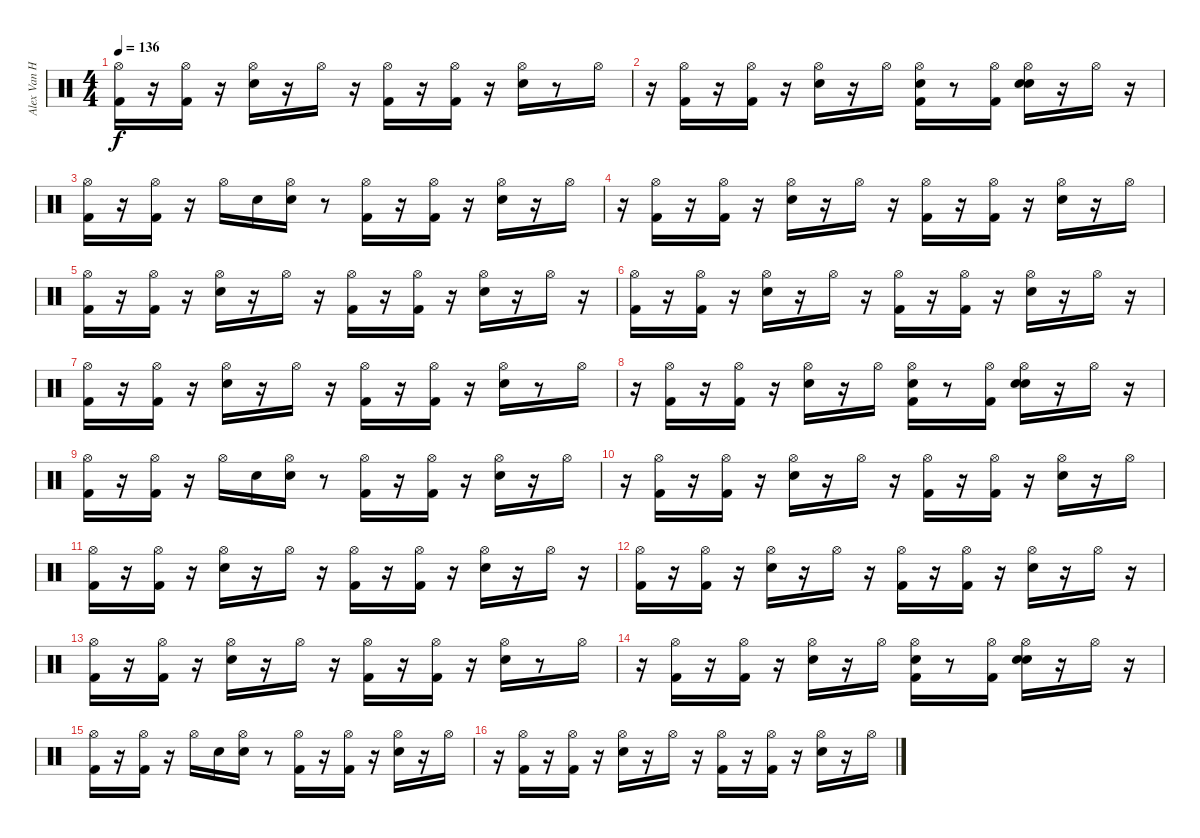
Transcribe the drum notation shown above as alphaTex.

\track ("Alex Van Halen (Drums)" "Alex Van H") {instrument percussion}
\staff {score}
\articulation defaults
\ts (4 4)
\tempo 136
\clef neutral
\ks c
("Hi-Hat (open)" "Kick (hit) 2").16{dy f} r.16 ("Hi-Hat (open)" "Kick (hit) 2").16 r.16 ("Hi-Hat (open)" "Snare (hit) 2").16 r.16 "Hi-Hat (open)".16 r.16 ("Hi-Hat (open)" "Kick (hit) 2").16 r.16 ("Hi-Hat (open)" "Kick (hit) 2").16 r.16 ("Hi-Hat (open)" "Snare (hit) 2").16 r.8 "Hi-Hat (open)".16 |
r.16 ("Hi-Hat (open)" "Kick (hit) 2").16 r.16 ("Hi-Hat (open)" "Kick (hit) 2").16 r.16 ("Hi-Hat (open)" "Snare (hit) 2").16 r.16 "Hi-Hat (open)".16 ("Snare (hit)" "Hi-Hat (open)" "Kick (hit) 2").16 r.8 ("Hi-Hat (open)" "Kick (hit) 2").16 ("Snare (hit)" "Hi-Hat (open)" "Snare (hit) 2").16 r.16 "Hi-Hat (open)".16 r.16 |
("Hi-Hat (open)" "Kick (hit) 2").16 r.16 ("Hi-Hat (open)" "Kick (hit) 2").16 r.16 "Hi-Hat (open)".16 "Snare (hit) 2".16 ("Snare (hit)" "Hi-Hat (open)").16 r.8 ("Hi-Hat (open)" "Kick (hit) 2").16 r.16 ("Hi-Hat (open)" "Kick (hit) 2").16 r.16 ("Hi-Hat (open)" "Snare (hit) 2").16 r.16 "Hi-Hat (open)".16 |
r.16 ("Hi-Hat (open)" "Kick (hit) 2").16 r.16 ("Hi-Hat (open)" "Kick (hit) 2").16 r.16 ("Hi-Hat (open)" "Snare (hit) 2").16 r.16 "Hi-Hat (open)".16 r.16 ("Hi-Hat (open)" "Kick (hit) 2").16 r.16 ("Hi-Hat (open)" "Kick (hit) 2").16 r.16 ("Hi-Hat (open)" "Snare (hit) 2").16 r.16 "Hi-Hat (open)".16 |
("Hi-Hat (open)" "Kick (hit) 2").16 r.16 ("Hi-Hat (open)" "Kick (hit) 2").16 r.16 ("Hi-Hat (open)" "Snare (hit) 2").16 r.16 "Hi-Hat (open)".16 r.16 ("Hi-Hat (open)" "Kick (hit) 2").16 r.16 ("Hi-Hat (open)" "Kick (hit) 2").16 r.16 ("Hi-Hat (open)" "Snare (hit) 2").16 r.16 "Hi-Hat (open)".16 r.16 |
("Hi-Hat (open)" "Kick (hit) 2").16 r.16 ("Hi-Hat (open)" "Kick (hit) 2").16 r.16 ("Hi-Hat (open)" "Snare (hit) 2").16 r.16 "Hi-Hat (open)".16 r.16 ("Hi-Hat (open)" "Kick (hit) 2").16 r.16 ("Hi-Hat (open)" "Kick (hit) 2").16 r.16 ("Hi-Hat (open)" "Snare (hit) 2").16 r.16 "Hi-Hat (open)".16 r.16 |
("Hi-Hat (open)" "Kick (hit) 2").16 r.16 ("Hi-Hat (open)" "Kick (hit) 2").16 r.16 ("Hi-Hat (open)" "Snare (hit) 2").16 r.16 "Hi-Hat (open)".16 r.16 ("Hi-Hat (open)" "Kick (hit) 2").16 r.16 ("Hi-Hat (open)" "Kick (hit) 2").16 r.16 ("Hi-Hat (open)" "Snare (hit) 2").16 r.8 "Hi-Hat (open)".16 |
r.16 ("Hi-Hat (open)" "Kick (hit) 2").16 r.16 ("Hi-Hat (open)" "Kick (hit) 2").16 r.16 ("Hi-Hat (open)" "Snare (hit) 2").16 r.16 "Hi-Hat (open)".16 ("Snare (hit)" "Hi-Hat (open)" "Kick (hit) 2").16 r.8 ("Hi-Hat (open)" "Kick (hit) 2").16 ("Snare (hit)" "Hi-Hat (open)" "Snare (hit) 2").16 r.16 "Hi-Hat (open)".16 r.16 |
("Hi-Hat (open)" "Kick (hit) 2").16 r.16 ("Hi-Hat (open)" "Kick (hit) 2").16 r.16 "Hi-Hat (open)".16 "Snare (hit) 2".16 ("Snare (hit)" "Hi-Hat (open)").16 r.8 ("Hi-Hat (open)" "Kick (hit) 2").16 r.16 ("Hi-Hat (open)" "Kick (hit) 2").16 r.16 ("Hi-Hat (open)" "Snare (hit) 2").16 r.16 "Hi-Hat (open)".16 |
r.16 ("Hi-Hat (open)" "Kick (hit) 2").16 r.16 ("Hi-Hat (open)" "Kick (hit) 2").16 r.16 ("Hi-Hat (open)" "Snare (hit) 2").16 r.16 "Hi-Hat (open)".16 r.16 ("Hi-Hat (open)" "Kick (hit) 2").16 r.16 ("Hi-Hat (open)" "Kick (hit) 2").16 r.16 ("Hi-Hat (open)" "Snare (hit) 2").16 r.16 "Hi-Hat (open)".16 |
("Hi-Hat (open)" "Kick (hit) 2").16 r.16 ("Hi-Hat (open)" "Kick (hit) 2").16 r.16 ("Hi-Hat (open)" "Snare (hit) 2").16 r.16 "Hi-Hat (open)".16 r.16 ("Hi-Hat (open)" "Kick (hit) 2").16 r.16 ("Hi-Hat (open)" "Kick (hit) 2").16 r.16 ("Hi-Hat (open)" "Snare (hit) 2").16 r.16 "Hi-Hat (open)".16 r.16 |
("Hi-Hat (open)" "Kick (hit) 2").16 r.16 ("Hi-Hat (open)" "Kick (hit) 2").16 r.16 ("Hi-Hat (open)" "Snare (hit) 2").16 r.16 "Hi-Hat (open)".16 r.16 ("Hi-Hat (open)" "Kick (hit) 2").16 r.16 ("Hi-Hat (open)" "Kick (hit) 2").16 r.16 ("Hi-Hat (open)" "Snare (hit) 2").16 r.16 "Hi-Hat (open)".16 r.16 |
("Hi-Hat (open)" "Kick (hit) 2").16 r.16 ("Hi-Hat (open)" "Kick (hit) 2").16 r.16 ("Hi-Hat (open)" "Snare (hit) 2").16 r.16 "Hi-Hat (open)".16 r.16 ("Hi-Hat (open)" "Kick (hit) 2").16 r.16 ("Hi-Hat (open)" "Kick (hit) 2").16 r.16 ("Hi-Hat (open)" "Snare (hit) 2").16 r.8 "Hi-Hat (open)".16 |
r.16 ("Hi-Hat (open)" "Kick (hit) 2").16 r.16 ("Hi-Hat (open)" "Kick (hit) 2").16 r.16 ("Hi-Hat (open)" "Snare (hit) 2").16 r.16 "Hi-Hat (open)".16 ("Snare (hit)" "Hi-Hat (open)" "Kick (hit) 2").16 r.8 ("Hi-Hat (open)" "Kick (hit) 2").16 ("Snare (hit)" "Hi-Hat (open)" "Snare (hit) 2").16 r.16 "Hi-Hat (open)".16 r.16 |
("Hi-Hat (open)" "Kick (hit) 2").16 r.16 ("Hi-Hat (open)" "Kick (hit) 2").16 r.16 "Hi-Hat (open)".16 "Snare (hit) 2".16 ("Snare (hit)" "Hi-Hat (open)").16 r.8 ("Hi-Hat (open)" "Kick (hit) 2").16 r.16 ("Hi-Hat (open)" "Kick (hit) 2").16 r.16 ("Hi-Hat (open)" "Snare (hit) 2").16 r.16 "Hi-Hat (open)".16 |
r.16 ("Hi-Hat (open)" "Kick (hit) 2").16 r.16 ("Hi-Hat (open)" "Kick (hit) 2").16 r.16 ("Hi-Hat (open)" "Snare (hit) 2").16 r.16 "Hi-Hat (open)".16 r.16 ("Hi-Hat (open)" "Kick (hit) 2").16 r.16 ("Hi-Hat (open)" "Kick (hit) 2").16 r.16 ("Hi-Hat (open)" "Snare (hit) 2").16 r.16 "Hi-Hat (open)".16
